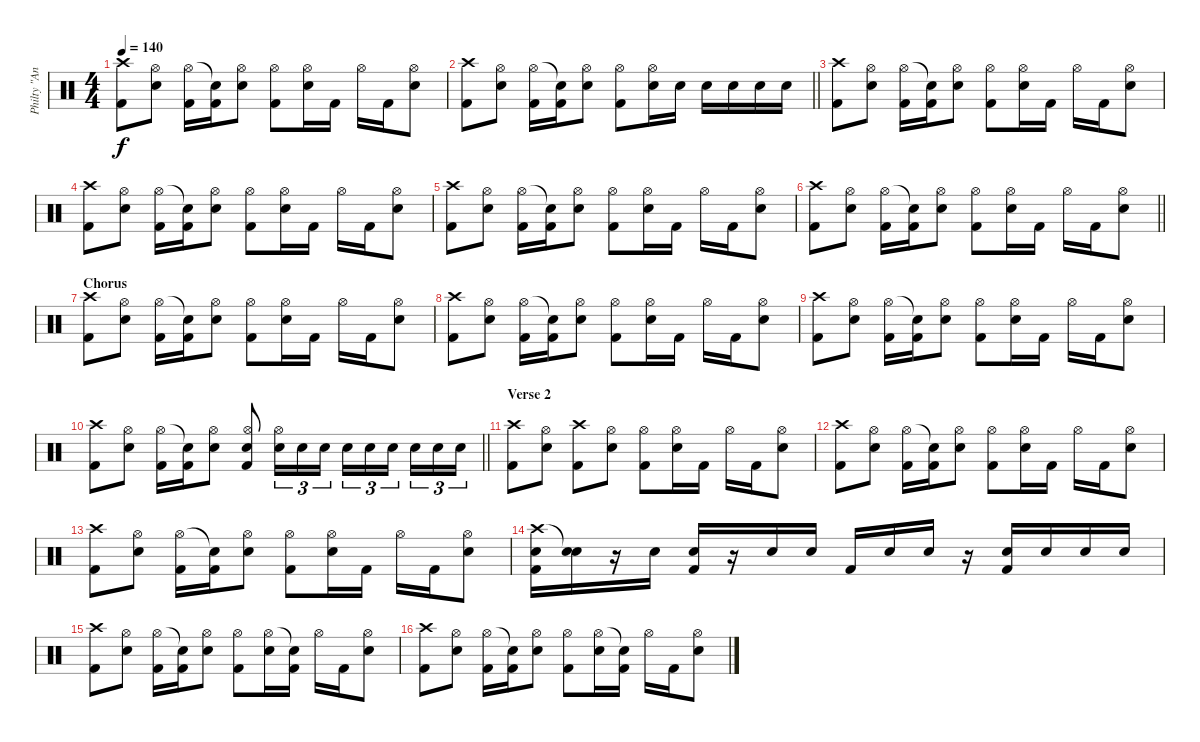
\track ("Philty \"Animal\" Taylor (Drums)" "Philty \"An") {instrument percussion}
\staff {score}
\articulation defaults
\ts (4 4)
\tempo 140
\clef neutral
\ks c
("Crash high (hit)" "Kick (hit) 2").8{dy f} ("Hi-Hat (open)" "Electric Snare (hit)").8 ("Hi-Hat (open)" "Kick (hit) 2").16 ("Snare (hit)"{t} "Kick (hit) 2").16 ("Hi-Hat (open)" "Electric Snare (hit)").8 ("Hi-Hat (open)" "Kick (hit) 2").8 ("Hi-Hat (open)" "Electric Snare (hit)").16 "Kick (hit) 2".16 "Hi-Hat (open)".16 "Kick (hit) 2".16 ("Hi-Hat (open)" "Electric Snare (hit)").8 |
\barLineRight lightlight
("Crash high (hit)" "Kick (hit) 2").8 ("Hi-Hat (open)" "Electric Snare (hit)").8 ("Hi-Hat (open)" "Kick (hit) 2").16 ("Snare (hit)"{t} "Kick (hit) 2").16 ("Hi-Hat (open)" "Electric Snare (hit)").8 ("Hi-Hat (open)" "Kick (hit) 2").8 ("Hi-Hat (open)" "Electric Snare (hit)").16 "Electric Snare (hit)".16 "Electric Snare (hit)".16 "Electric Snare (hit)".16 "Electric Snare (hit)".16 "Electric Snare (hit)".16 |
("Crash high (hit)" "Kick (hit) 2").8 ("Hi-Hat (open)" "Electric Snare (hit)").8 ("Hi-Hat (open)" "Kick (hit) 2").16 ("Snare (hit)"{t} "Kick (hit) 2").16 ("Hi-Hat (open)" "Electric Snare (hit)").8 ("Hi-Hat (open)" "Kick (hit) 2").8 ("Hi-Hat (open)" "Electric Snare (hit)").16 "Kick (hit) 2".16 "Hi-Hat (open)".16 "Kick (hit) 2".16 ("Hi-Hat (open)" "Electric Snare (hit)").8 |
("Crash high (hit)" "Kick (hit) 2").8 ("Hi-Hat (open)" "Electric Snare (hit)").8 ("Hi-Hat (open)" "Kick (hit) 2").16 ("Snare (hit)"{t} "Kick (hit) 2").16 ("Hi-Hat (open)" "Electric Snare (hit)").8 ("Hi-Hat (open)" "Kick (hit) 2").8 ("Hi-Hat (open)" "Electric Snare (hit)").16 "Kick (hit) 2".16 "Hi-Hat (open)".16 "Kick (hit) 2".16 ("Hi-Hat (open)" "Electric Snare (hit)").8 |
("Crash high (hit)" "Kick (hit) 2").8 ("Hi-Hat (open)" "Electric Snare (hit)").8 ("Hi-Hat (open)" "Kick (hit) 2").16 ("Snare (hit)"{t} "Kick (hit) 2").16 ("Hi-Hat (open)" "Electric Snare (hit)").8 ("Hi-Hat (open)" "Kick (hit) 2").8 ("Hi-Hat (open)" "Electric Snare (hit)").16 "Kick (hit) 2".16 "Hi-Hat (open)".16 "Kick (hit) 2".16 ("Hi-Hat (open)" "Electric Snare (hit)").8 |
\barLineRight lightlight
("Crash high (hit)" "Kick (hit) 2").8 ("Hi-Hat (open)" "Electric Snare (hit)").8 ("Hi-Hat (open)" "Kick (hit) 2").16 ("Snare (hit)"{t} "Kick (hit) 2").16 ("Hi-Hat (open)" "Electric Snare (hit)").8 ("Hi-Hat (open)" "Kick (hit) 2").8 ("Hi-Hat (open)" "Electric Snare (hit)").16 "Kick (hit) 2".16 "Hi-Hat (open)".16 "Kick (hit) 2".16 ("Hi-Hat (open)" "Electric Snare (hit)").8 |
\section ("" "Chorus")
("Crash high (hit)" "Kick (hit) 2").8 ("Hi-Hat (open)" "Electric Snare (hit)").8 ("Hi-Hat (open)" "Kick (hit) 2").16 ("Snare (hit)"{t} "Kick (hit) 2").16 ("Hi-Hat (open)" "Electric Snare (hit)").8 ("Hi-Hat (open)" "Kick (hit) 2").8 ("Hi-Hat (open)" "Electric Snare (hit)").16 "Kick (hit) 2".16 "Hi-Hat (open)".16 "Kick (hit) 2".16 ("Hi-Hat (open)" "Electric Snare (hit)").8 |
("Crash high (hit)" "Kick (hit) 2").8 ("Hi-Hat (open)" "Electric Snare (hit)").8 ("Hi-Hat (open)" "Kick (hit) 2").16 ("Snare (hit)"{t} "Kick (hit) 2").16 ("Hi-Hat (open)" "Electric Snare (hit)").8 ("Hi-Hat (open)" "Kick (hit) 2").8 ("Hi-Hat (open)" "Electric Snare (hit)").16 "Kick (hit) 2".16 "Hi-Hat (open)".16 "Kick (hit) 2".16 ("Hi-Hat (open)" "Electric Snare (hit)").8 |
("Crash high (hit)" "Kick (hit) 2").8 ("Hi-Hat (open)" "Electric Snare (hit)").8 ("Hi-Hat (open)" "Kick (hit) 2").16 ("Snare (hit)"{t} "Kick (hit) 2").16 ("Hi-Hat (open)" "Electric Snare (hit)").8 ("Hi-Hat (open)" "Kick (hit) 2").8 ("Hi-Hat (open)" "Electric Snare (hit)").16 "Kick (hit) 2".16 "Hi-Hat (open)".16 "Kick (hit) 2".16 ("Hi-Hat (open)" "Electric Snare (hit)").8 |
\barLineRight lightlight
("Crash high (hit)" "Kick (hit) 2").8 ("Hi-Hat (open)" "Electric Snare (hit)").8 ("Hi-Hat (open)" "Kick (hit) 2").16 ("Snare (hit)"{t} "Kick (hit) 2").16 ("Hi-Hat (open)" "Electric Snare (hit)").8 ("Hi-Hat (open)" "Electric Snare (hit)" "Kick (hit) 2").8 ("Hi-Hat (open)" "Electric Snare (hit)").16{tu (3 2)} "Electric Snare (hit)".16{tu (3 2)} "Electric Snare (hit)".16{tu (3 2)} "Electric Snare (hit)".16{tu (3 2)} "Electric Snare (hit)".16{tu (3 2)} "Electric Snare (hit)".16{tu (3 2) beam splitsecondary} "Electric Snare (hit)".16{tu (3 2)} "Electric Snare (hit)".16{tu (3 2)} "Electric Snare (hit)".16{tu (3 2)} |
\section ("" "Verse 2")
("Crash high (hit)" "Kick (hit) 2").8 ("Hi-Hat (open)" "Electric Snare (hit)").8 ("Crash high (hit)" "Kick (hit) 2").8 ("Hi-Hat (open)" "Electric Snare (hit)").8 ("Hi-Hat (open)" "Kick (hit) 2").8 ("Hi-Hat (open)" "Electric Snare (hit)").16 "Kick (hit) 2".16 "Hi-Hat (open)".16 "Kick (hit) 2".16 ("Hi-Hat (open)" "Electric Snare (hit)").8 |
("Crash high (hit)" "Kick (hit) 2").8 ("Hi-Hat (open)" "Electric Snare (hit)").8 ("Hi-Hat (open)" "Kick (hit) 2").16 ("Snare (hit)"{t} "Kick (hit) 2").16 ("Hi-Hat (open)" "Electric Snare (hit)").8 ("Hi-Hat (open)" "Kick (hit) 2").8 ("Hi-Hat (open)" "Electric Snare (hit)").16 "Kick (hit) 2".16 "Hi-Hat (open)".16 "Kick (hit) 2".16 ("Hi-Hat (open)" "Electric Snare (hit)").8 |
("Crash high (hit)" "Kick (hit) 2").8 ("Hi-Hat (open)" "Electric Snare (hit)").8 ("Hi-Hat (open)" "Kick (hit) 2").16 ("Snare (hit)"{t} "Kick (hit) 2").16 ("Hi-Hat (open)" "Electric Snare (hit)").8 ("Hi-Hat (open)" "Kick (hit) 2").8 ("Hi-Hat (open)" "Electric Snare (hit)").16 "Kick (hit) 2".16 "Hi-Hat (open)".16 "Kick (hit) 2".16 ("Hi-Hat (open)" "Electric Snare (hit)").8 |
("Crash high (hit)" "Electric Snare (hit)" "Kick (hit) 2").16 ("Snare (hit)"{t} "Electric Snare (hit)").16 r.16 "Electric Snare (hit)".16 ("Electric Snare (hit)" "Kick (hit) 2").16 r.16 "Electric Snare (hit)".16 "Electric Snare (hit)".16 "Kick (hit) 2".16 "Electric Snare (hit)".16 "Electric Snare (hit)".16 r.16 ("Electric Snare (hit)" "Kick (hit) 2").16 "Electric Snare (hit)".16 "Electric Snare (hit)".16 "Electric Snare (hit)".16 |
("Crash high (hit)" "Kick (hit) 2").8 ("Hi-Hat (open)" "Electric Snare (hit)").8 ("Hi-Hat (open)" "Kick (hit) 2").16 ("Snare (hit)"{t} "Kick (hit) 2").16 ("Hi-Hat (open)" "Electric Snare (hit)").8 ("Hi-Hat (open)" "Kick (hit) 2").8 ("Hi-Hat (open)" "Electric Snare (hit)").16 ("Snare (hit)"{t} "Kick (hit) 2").16 "Hi-Hat (open)".16 "Kick (hit) 2".16 ("Hi-Hat (open)" "Electric Snare (hit)").8 |
("Crash high (hit)" "Kick (hit) 2").8 ("Hi-Hat (open)" "Electric Snare (hit)").8 ("Hi-Hat (open)" "Kick (hit) 2").16 ("Snare (hit)"{t} "Kick (hit) 2").16 ("Hi-Hat (open)" "Electric Snare (hit)").8 ("Hi-Hat (open)" "Kick (hit) 2").8 ("Hi-Hat (open)" "Electric Snare (hit)").16 ("Snare (hit)"{t} "Kick (hit) 2").16 "Hi-Hat (open)".16 "Kick (hit) 2".16 ("Hi-Hat (open)" "Electric Snare (hit)").8
